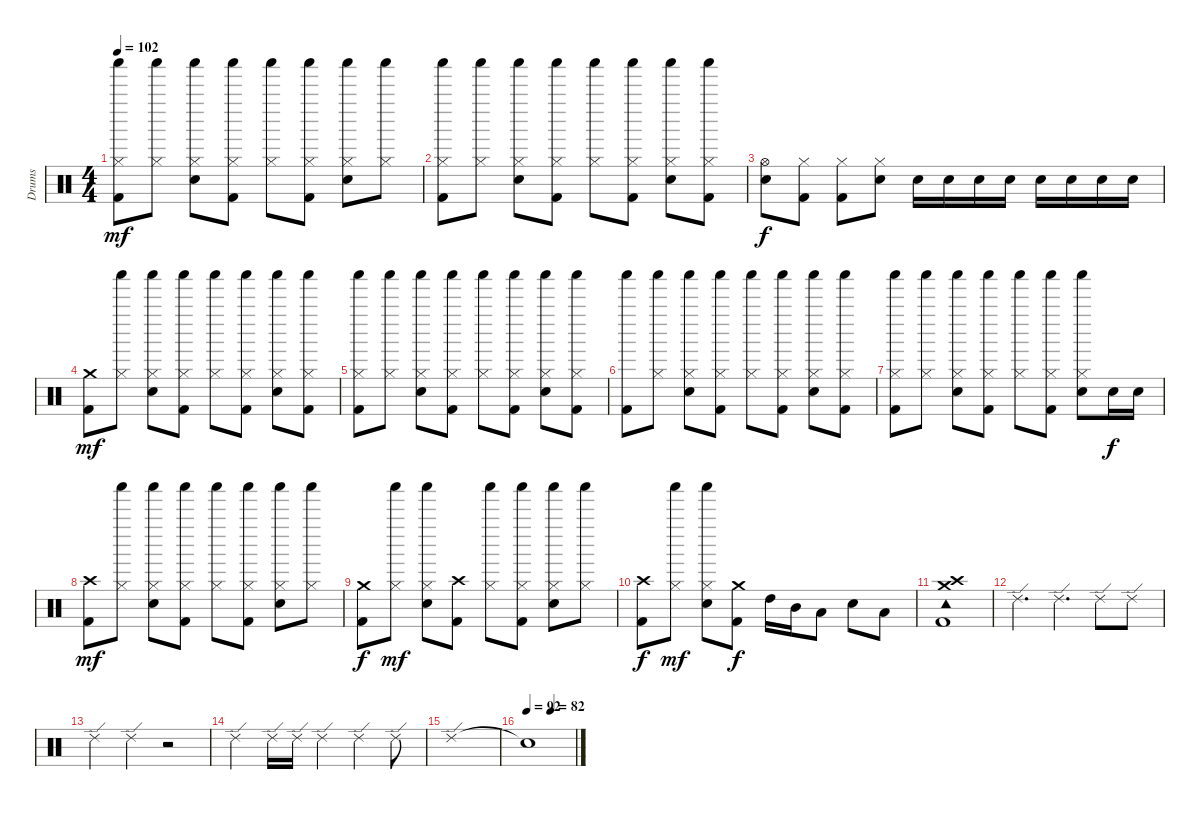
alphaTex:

\track ("Drums" "Drums") {instrument percussion}
\staff {score}
\articulation defaults
\ts (4 4)
\tempo 102
\clef neutral
\ks c
("Kick (hit) 2" "Hi-Hat (closed)" "Shaker (hit)").8{dy mf} ("Hi-Hat (closed)" "Shaker (hit)").8 ("Electric Snare (hit)" "Hi-Hat (closed)" "Shaker (hit)").8 ("Kick (hit) 2" "Hi-Hat (closed)" "Shaker (hit)").8 ("Hi-Hat (closed)" "Shaker (hit)").8 ("Kick (hit) 2" "Hi-Hat (closed)" "Shaker (hit)").8 ("Electric Snare (hit)" "Hi-Hat (closed)" "Shaker (hit)").8 ("Hi-Hat (closed)" "Shaker (hit)").8 |
("Kick (hit) 2" "Hi-Hat (closed)" "Shaker (hit)").8 ("Hi-Hat (closed)" "Shaker (hit)").8 ("Electric Snare (hit)" "Hi-Hat (closed)" "Shaker (hit)").8 ("Kick (hit) 2" "Hi-Hat (closed)" "Shaker (hit)").8 ("Hi-Hat (closed)" "Shaker (hit)").8 ("Kick (hit) 2" "Hi-Hat (closed)" "Shaker (hit)").8 ("Electric Snare (hit)" "Hi-Hat (closed)" "Shaker (hit)").8 ("Kick (hit) 2" "Hi-Hat (closed)" "Shaker (hit)").8 |
("Electric Snare (hit)" "Hi-Hat (open)").8{dy f} ("Kick (hit) 2" "Hi-Hat (closed)").8 ("Kick (hit) 2" "Hi-Hat (closed)").8 ("Electric Snare (hit)" "Hi-Hat (closed)").8 "Electric Snare (hit)".16 "Electric Snare (hit)".16 "Electric Snare (hit)".16 "Electric Snare (hit)".16 "Electric Snare (hit)".16 "Electric Snare (hit)".16 "Electric Snare (hit)".16 "Electric Snare (hit)".16 |
("Kick (hit) 2" "Crash medium (hit)").8{dy mf} ("Hi-Hat (closed)" "Shaker (hit)").8 ("Electric Snare (hit)" "Hi-Hat (closed)" "Shaker (hit)").8 ("Kick (hit) 2" "Hi-Hat (closed)" "Shaker (hit)").8 ("Hi-Hat (closed)" "Shaker (hit)").8 ("Kick (hit) 2" "Hi-Hat (closed)" "Shaker (hit)").8 ("Electric Snare (hit)" "Hi-Hat (closed)" "Shaker (hit)").8 ("Kick (hit) 2" "Hi-Hat (closed)" "Shaker (hit)").8 |
("Kick (hit) 2" "Hi-Hat (closed)" "Shaker (hit)").8 ("Hi-Hat (closed)" "Shaker (hit)").8 ("Electric Snare (hit)" "Hi-Hat (closed)" "Shaker (hit)").8 ("Kick (hit) 2" "Hi-Hat (closed)" "Shaker (hit)").8 ("Hi-Hat (closed)" "Shaker (hit)").8 ("Kick (hit) 2" "Hi-Hat (closed)" "Shaker (hit)").8 ("Electric Snare (hit)" "Hi-Hat (closed)" "Shaker (hit)").8 ("Kick (hit) 2" "Hi-Hat (closed)" "Shaker (hit)").8 |
("Kick (hit) 2" "Shaker (hit)").8 ("Hi-Hat (closed)" "Shaker (hit)").8 ("Electric Snare (hit)" "Hi-Hat (closed)" "Shaker (hit)").8 ("Kick (hit) 2" "Hi-Hat (closed)" "Shaker (hit)").8 ("Hi-Hat (closed)" "Shaker (hit)").8 ("Kick (hit) 2" "Hi-Hat (closed)" "Shaker (hit)").8 ("Electric Snare (hit)" "Hi-Hat (closed)" "Shaker (hit)").8 ("Kick (hit) 2" "Hi-Hat (closed)" "Shaker (hit)").8 |
("Kick (hit) 2" "Hi-Hat (closed)" "Shaker (hit)").8 ("Hi-Hat (closed)" "Shaker (hit)").8 ("Electric Snare (hit)" "Hi-Hat (closed)" "Shaker (hit)").8 ("Kick (hit) 2" "Hi-Hat (closed)" "Shaker (hit)").8 ("Hi-Hat (closed)" "Shaker (hit)").8 ("Kick (hit) 2" "Hi-Hat (closed)" "Shaker (hit)").8 ("Electric Snare (hit)" "Hi-Hat (closed)" "Shaker (hit)").8 "Electric Snare (hit)".16{dy f} "Electric Snare (hit)".16 |
("Kick (hit) 2" "Crash high (hit)").8{dy mf} ("Hi-Hat (closed)" "Shaker (hit)").8 ("Electric Snare (hit)" "Hi-Hat (closed)" "Shaker (hit)").8 ("Kick (hit) 2" "Hi-Hat (closed)" "Shaker (hit)").8 ("Hi-Hat (closed)" "Shaker (hit)").8 ("Kick (hit) 2" "Hi-Hat (closed)" "Shaker (hit)").8 ("Electric Snare (hit)" "Hi-Hat (closed)" "Shaker (hit)").8 ("Hi-Hat (closed)" "Shaker (hit)").8 |
("Kick (hit) 2" "Crash medium (hit)").8{dy f} ("Hi-Hat (closed)" "Shaker (hit)").8{dy mf} ("Electric Snare (hit)" "Hi-Hat (closed)" "Shaker (hit)").8 ("Kick (hit) 2" "Crash high (hit)").8 ("Hi-Hat (closed)" "Shaker (hit)").8 ("Kick (hit) 2" "Hi-Hat (closed)" "Shaker (hit)").8 ("Electric Snare (hit)" "Hi-Hat (closed)" "Shaker (hit)").8 ("Hi-Hat (closed)" "Shaker (hit)").8 |
("Kick (hit) 2" "Crash high (hit)").8{dy f} ("Hi-Hat (closed)" "Shaker (hit)").8{dy mf} ("Electric Snare (hit)" "Hi-Hat (closed)" "Shaker (hit)").8 ("Kick (hit) 2" "Crash medium (hit)").8{dy f} "High Tom (hit)".16 "Mid Tom (hit)".16 "Low Tom (hit)".8 "Electric Snare (hit)".8 "Low Tom (hit)".8 |
("Kick (hit) 2" "Tambourine (hit)" "Crash medium (hit)" "Crash high (hit)").1 |
"Ride (edge) 2".4{d} "Ride (edge) 2".4{d} "Ride (edge) 2".8 "Ride (edge) 2".8 |
"Ride (edge) 2".4 "Ride (edge) 2".4 r.2 |
"Ride (edge) 2".4 "Ride (edge) 2".16 "Ride (edge) 2".16 "Ride (edge) 2".4 "Ride (edge) 2".4 "Ride (edge) 2".8 |
"Ride (edge) 2".1 |
\tempo 92
\tempo (82 0.5)
"Snare (hit)"{t}.1
